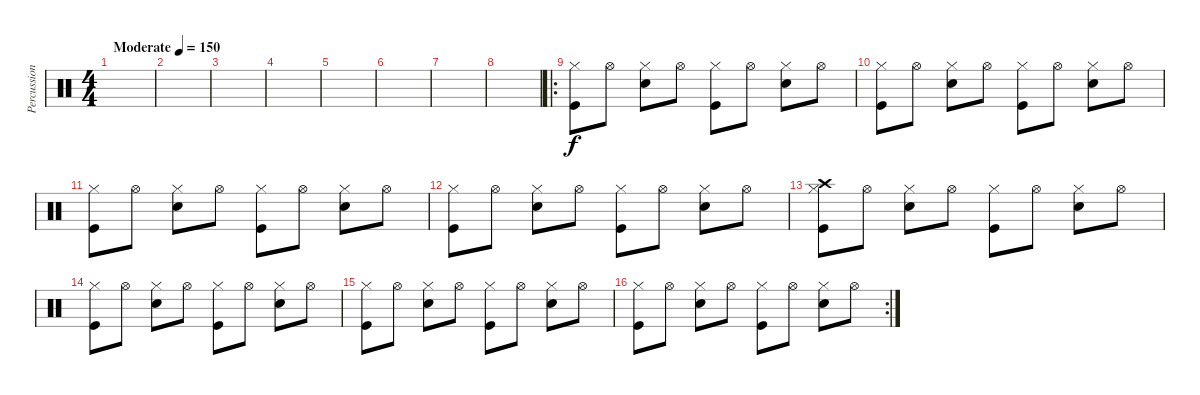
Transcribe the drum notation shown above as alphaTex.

\track ("Percussion" "Percussion") {instrument percussion}
\staff {score}
\articulation defaults
\ts (4 4)
\tempo (150 "Moderate")
\clef neutral
\ks c
|
|
|
|
|
|
|
|
\ro
("Hi-Hat (closed)" "Kick (hit)").8 "Hi-Hat (open)".8 ("Hi-Hat (closed)" "Electric Snare (hit)").8 "Hi-Hat (open)".8 ("Hi-Hat (closed)" "Kick (hit)").8 "Hi-Hat (open)".8 ("Hi-Hat (closed)" "Electric Snare (hit)").8 "Hi-Hat (open)".8 |
("Hi-Hat (closed)" "Kick (hit)").8 "Hi-Hat (open)".8 ("Hi-Hat (closed)" "Electric Snare (hit)").8 "Hi-Hat (open)".8 ("Hi-Hat (closed)" "Kick (hit)").8 "Hi-Hat (open)".8 ("Hi-Hat (closed)" "Electric Snare (hit)").8 "Hi-Hat (open)".8 |
("Hi-Hat (closed)" "Kick (hit)").8 "Hi-Hat (open)".8 ("Hi-Hat (closed)" "Electric Snare (hit)").8 "Hi-Hat (open)".8 ("Hi-Hat (closed)" "Kick (hit)").8 "Hi-Hat (open)".8 ("Hi-Hat (closed)" "Electric Snare (hit)").8 "Hi-Hat (open)".8 |
("Hi-Hat (closed)" "Kick (hit)").8 "Hi-Hat (open)".8 ("Hi-Hat (closed)" "Electric Snare (hit)").8 "Hi-Hat (open)".8 ("Hi-Hat (closed)" "Kick (hit)").8 "Hi-Hat (open)".8 ("Hi-Hat (closed)" "Electric Snare (hit)").8 "Hi-Hat (open)".8 |
("Crash high (hit)" "Hi-Hat (closed)" "Kick (hit)").8 "Hi-Hat (open)".8 ("Hi-Hat (closed)" "Electric Snare (hit)").8 "Hi-Hat (open)".8 ("Hi-Hat (closed)" "Kick (hit)").8 "Hi-Hat (open)".8 ("Hi-Hat (closed)" "Electric Snare (hit)").8 "Hi-Hat (open)".8 |
("Hi-Hat (closed)" "Kick (hit)").8 "Hi-Hat (open)".8 ("Hi-Hat (closed)" "Electric Snare (hit)").8 "Hi-Hat (open)".8 ("Hi-Hat (closed)" "Kick (hit)").8 "Hi-Hat (open)".8 ("Hi-Hat (closed)" "Electric Snare (hit)").8 "Hi-Hat (open)".8 |
("Hi-Hat (closed)" "Kick (hit)").8 "Hi-Hat (open)".8 ("Hi-Hat (closed)" "Electric Snare (hit)").8 "Hi-Hat (open)".8 ("Hi-Hat (closed)" "Kick (hit)").8 "Hi-Hat (open)".8 ("Hi-Hat (closed)" "Electric Snare (hit)").8 "Hi-Hat (open)".8 |
\rc 2
("Hi-Hat (closed)" "Kick (hit)").8 "Hi-Hat (open)".8 ("Hi-Hat (closed)" "Electric Snare (hit)").8 "Hi-Hat (open)".8 ("Hi-Hat (closed)" "Kick (hit)").8 "Hi-Hat (open)".8 ("Hi-Hat (closed)" "Electric Snare (hit)").8 "Hi-Hat (open)".8
